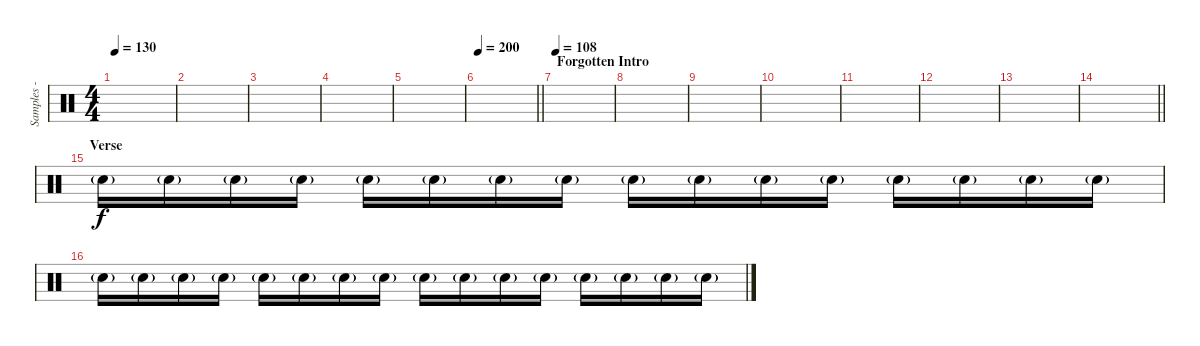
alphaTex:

\track ("Samples - Joe Hahn" "Samples - ") {instrument percussion}
\staff {score}
\articulation defaults
\ts (4 4)
\tempo 130
\clef neutral
\ks c
|
|
|
|
|
\tempo 200
\barLineRight lightlight
|
\section ("" "Forgotten Intro")
\tempo 108
|
|
|
|
|
|
|
\barLineRight lightlight
|
\section ("" "Verse")
"Electric Snare (hit)"{g}.16 "Electric Snare (hit)"{g}.16 "Electric Snare (hit)"{g}.16 "Electric Snare (hit)"{g}.16 "Electric Snare (hit)"{g}.16 "Electric Snare (hit)"{g}.16 "Electric Snare (hit)"{g}.16 "Electric Snare (hit)"{g}.16 "Electric Snare (hit)"{g}.16 "Electric Snare (hit)"{g}.16 "Electric Snare (hit)"{g}.16 "Electric Snare (hit)"{g}.16 "Electric Snare (hit)"{g}.16 "Electric Snare (hit)"{g}.16 "Electric Snare (hit)"{g}.16 "Electric Snare (hit)"{g}.16 |
"Electric Snare (hit)"{g}.16 "Electric Snare (hit)"{g}.16 "Electric Snare (hit)"{g}.16 "Electric Snare (hit)"{g}.16 "Electric Snare (hit)"{g}.16 "Electric Snare (hit)"{g}.16 "Electric Snare (hit)"{g}.16 "Electric Snare (hit)"{g}.16 "Electric Snare (hit)"{g}.16 "Electric Snare (hit)"{g}.16 "Electric Snare (hit)"{g}.16 "Electric Snare (hit)"{g}.16 "Electric Snare (hit)"{g}.16 "Electric Snare (hit)"{g}.16 "Electric Snare (hit)"{g}.16 "Electric Snare (hit)"{g}.16
